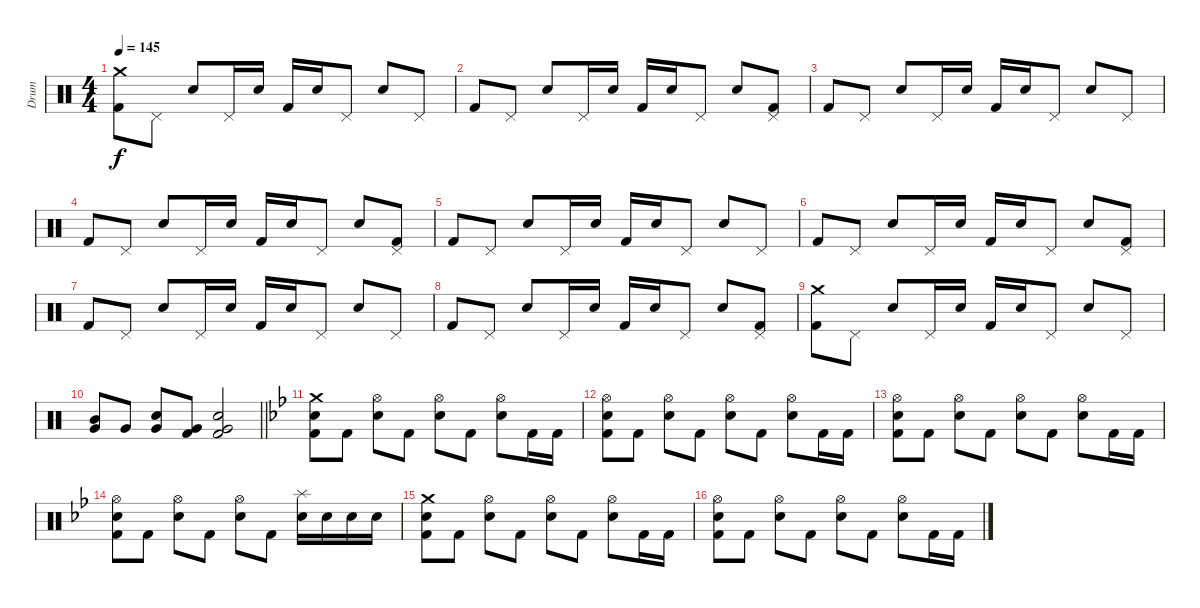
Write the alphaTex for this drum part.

\track ("Drum" "Drum") {instrument percussion}
\staff {score}
\articulation defaults
\ts (4 4)
\tempo 145
\clef neutral
\ks c
("Crash medium (hit)" "Kick (hit) 2").8{dy f} "Pedal Hi-Hat (hit)".8 "Snare (hit) 2".8 "Pedal Hi-Hat (hit)".16 "Snare (hit) 2".16 "Kick (hit) 2".16 "Snare (hit) 2".16 "Pedal Hi-Hat (hit)".8 "Snare (hit) 2".8 "Pedal Hi-Hat (hit)".8 |
"Kick (hit) 2".8 "Pedal Hi-Hat (hit)".8 "Snare (hit) 2".8 "Pedal Hi-Hat (hit)".16 "Snare (hit) 2".16 "Kick (hit) 2".16 "Snare (hit) 2".16 "Pedal Hi-Hat (hit)".8 "Snare (hit) 2".8 ("Pedal Hi-Hat (hit)" "Kick (hit) 2").8 |
"Kick (hit) 2".8 "Pedal Hi-Hat (hit)".8 "Snare (hit) 2".8 "Pedal Hi-Hat (hit)".16 "Snare (hit) 2".16 "Kick (hit) 2".16 "Snare (hit) 2".16 "Pedal Hi-Hat (hit)".8 "Snare (hit) 2".8 "Pedal Hi-Hat (hit)".8 |
"Kick (hit) 2".8 "Pedal Hi-Hat (hit)".8 "Snare (hit) 2".8 "Pedal Hi-Hat (hit)".16 "Snare (hit) 2".16 "Kick (hit) 2".16 "Snare (hit) 2".16 "Pedal Hi-Hat (hit)".8 "Snare (hit) 2".8 ("Pedal Hi-Hat (hit)" "Kick (hit) 2").8 |
"Kick (hit) 2".8 "Pedal Hi-Hat (hit)".8 "Snare (hit) 2".8 "Pedal Hi-Hat (hit)".16 "Snare (hit) 2".16 "Kick (hit) 2".16 "Snare (hit) 2".16 "Pedal Hi-Hat (hit)".8 "Snare (hit) 2".8 "Pedal Hi-Hat (hit)".8 |
"Kick (hit) 2".8 "Pedal Hi-Hat (hit)".8 "Snare (hit) 2".8 "Pedal Hi-Hat (hit)".16 "Snare (hit) 2".16 "Kick (hit) 2".16 "Snare (hit) 2".16 "Pedal Hi-Hat (hit)".8 "Snare (hit) 2".8 ("Pedal Hi-Hat (hit)" "Kick (hit) 2").8 |
"Kick (hit) 2".8 "Pedal Hi-Hat (hit)".8 "Snare (hit) 2".8 "Pedal Hi-Hat (hit)".16 "Snare (hit) 2".16 "Kick (hit) 2".16 "Snare (hit) 2".16 "Pedal Hi-Hat (hit)".8 "Snare (hit) 2".8 "Pedal Hi-Hat (hit)".8 |
"Kick (hit) 2".8 "Pedal Hi-Hat (hit)".8 "Snare (hit) 2".8 "Pedal Hi-Hat (hit)".16 "Snare (hit) 2".16 "Kick (hit) 2".16 "Snare (hit) 2".16 "Pedal Hi-Hat (hit)".8 "Snare (hit) 2".8 ("Pedal Hi-Hat (hit)" "Kick (hit) 2").8 |
("Crash medium (hit)" "Kick (hit) 2").8 "Pedal Hi-Hat (hit)".8 "Snare (hit) 2".8 "Pedal Hi-Hat (hit)".16 "Snare (hit) 2".16 "Kick (hit) 2".16 "Snare (hit) 2".16 "Pedal Hi-Hat (hit)".8 "Snare (hit) 2".8 "Pedal Hi-Hat (hit)".8 |
\barLineRight lightlight
("Mid Tom (hit)" "Very Low Tom (hit)").8 "Very Low Tom (hit)".8 ("Snare (hit) 2" "Very Low Tom (hit)").8 ("Very Low Tom (hit)" "Kick (hit) 2").8 ("Snare (hit) 2" "Very Low Tom (hit)" "Kick (hit) 2").2 |
\ks bb
("Crash medium (hit)" "Snare (hit) 2" "Kick (hit) 2").8 "Kick (hit) 2".8 ("Hi-Hat (open)" "Snare (hit) 2").8 "Kick (hit) 2".8 ("Hi-Hat (open)" "Snare (hit) 2").8 "Kick (hit) 2".8 ("Hi-Hat (open)" "Snare (hit) 2").8 "Kick (hit) 2".16 "Kick (hit) 2".16 |
("Hi-Hat (open)" "Snare (hit) 2" "Kick (hit) 2").8 "Kick (hit) 2".8 ("Hi-Hat (open)" "Snare (hit) 2").8 "Kick (hit) 2".8 ("Hi-Hat (open)" "Snare (hit) 2").8 "Kick (hit) 2".8 ("Hi-Hat (open)" "Snare (hit) 2").8 "Kick (hit) 2".16 "Kick (hit) 2".16 |
("Hi-Hat (open)" "Snare (hit) 2" "Kick (hit) 2").8 "Kick (hit) 2".8 ("Hi-Hat (open)" "Snare (hit) 2").8 "Kick (hit) 2".8 ("Hi-Hat (open)" "Snare (hit) 2").8 "Kick (hit) 2".8 ("Hi-Hat (open)" "Snare (hit) 2").8 "Kick (hit) 2".16 "Kick (hit) 2".16 |
("Hi-Hat (open)" "Snare (hit) 2" "Kick (hit) 2").8 "Kick (hit) 2".8 ("Hi-Hat (open)" "Snare (hit) 2").8 "Kick (hit) 2".8 ("Hi-Hat (open)" "Snare (hit) 2").8 "Kick (hit) 2".8 ("Splash (hit)" "Snare (hit) 2").16 "Snare (hit) 2".16 "Snare (hit) 2".16 "Snare (hit) 2".16 |
("Crash medium (hit)" "Snare (hit) 2" "Kick (hit) 2").8 "Kick (hit) 2".8 ("Hi-Hat (open)" "Snare (hit) 2").8 "Kick (hit) 2".8 ("Hi-Hat (open)" "Snare (hit) 2").8 "Kick (hit) 2".8 ("Hi-Hat (open)" "Snare (hit) 2").8 "Kick (hit) 2".16 "Kick (hit) 2".16 |
("Hi-Hat (open)" "Snare (hit) 2" "Kick (hit) 2").8 "Kick (hit) 2".8 ("Hi-Hat (open)" "Snare (hit) 2").8 "Kick (hit) 2".8 ("Hi-Hat (open)" "Snare (hit) 2").8 "Kick (hit) 2".8 ("Hi-Hat (open)" "Snare (hit) 2").8 "Kick (hit) 2".16 "Kick (hit) 2".16
